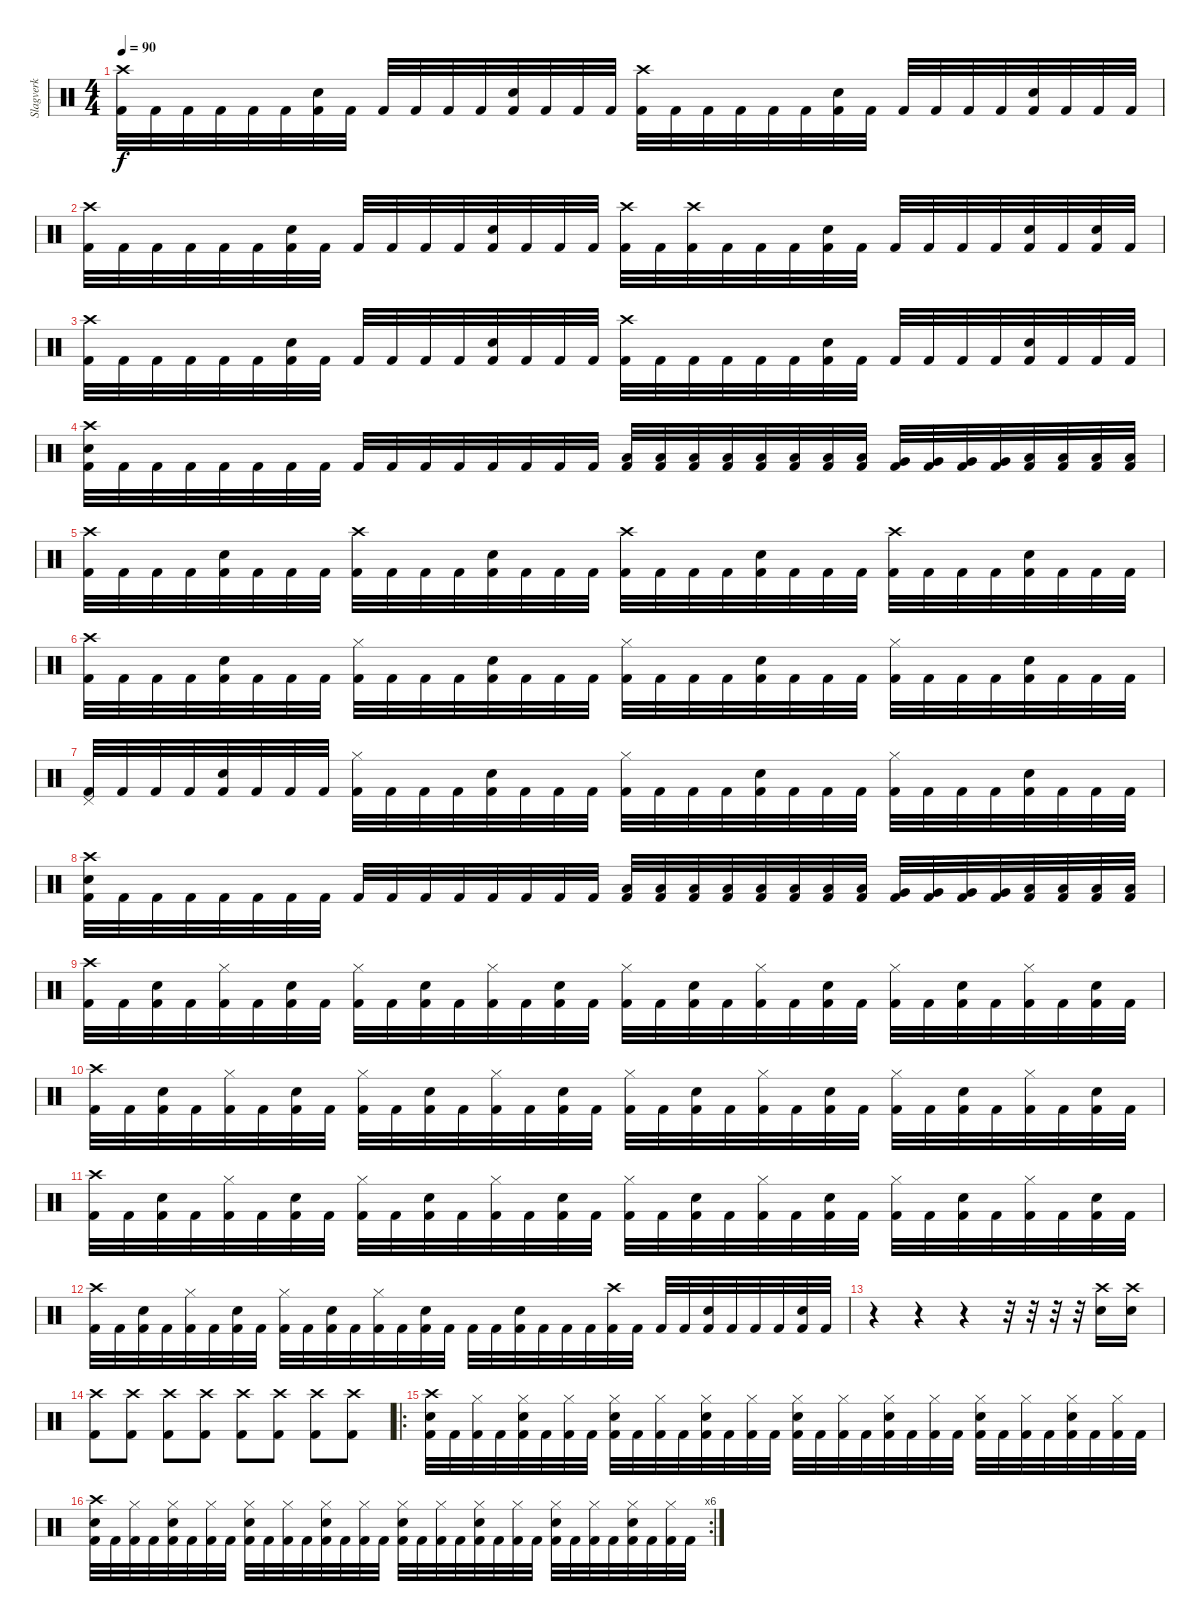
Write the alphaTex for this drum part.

\track ("Slagverk" "Slagverk") {instrument percussion}
\staff {score}
\articulation defaults
\ts (4 4)
\tempo 90
\clef neutral
\ks c
("Crash high (hit)" "Kick (hit) 2").32{dy f} "Kick (hit) 2".32 "Kick (hit) 2".32 "Kick (hit) 2".32 "Kick (hit) 2".32 "Kick (hit) 2".32 ("Snare (hit) 2" "Kick (hit) 2").32 "Kick (hit) 2".32 "Kick (hit) 2".32 "Kick (hit) 2".32 "Kick (hit) 2".32 "Kick (hit) 2".32 ("Snare (hit) 2" "Kick (hit) 2").32 "Kick (hit) 2".32 "Kick (hit) 2".32 "Kick (hit) 2".32 ("Crash high (hit)" "Kick (hit) 2").32 "Kick (hit) 2".32 "Kick (hit) 2".32 "Kick (hit) 2".32 "Kick (hit) 2".32 "Kick (hit) 2".32 ("Snare (hit) 2" "Kick (hit) 2").32 "Kick (hit) 2".32 "Kick (hit) 2".32 "Kick (hit) 2".32 "Kick (hit) 2".32 "Kick (hit) 2".32 ("Snare (hit) 2" "Kick (hit) 2").32 "Kick (hit) 2".32 "Kick (hit) 2".32 "Kick (hit) 2".32 |
("Crash high (hit)" "Kick (hit) 2").32 "Kick (hit) 2".32 "Kick (hit) 2".32 "Kick (hit) 2".32 "Kick (hit) 2".32 "Kick (hit) 2".32 ("Snare (hit) 2" "Kick (hit) 2").32 "Kick (hit) 2".32 "Kick (hit) 2".32 "Kick (hit) 2".32 "Kick (hit) 2".32 "Kick (hit) 2".32 ("Snare (hit) 2" "Kick (hit) 2").32 "Kick (hit) 2".32 "Kick (hit) 2".32 "Kick (hit) 2".32 ("Crash high (hit)" "Kick (hit) 2").32 "Kick (hit) 2".32 ("Crash high (hit)" "Kick (hit) 2").32 "Kick (hit) 2".32 "Kick (hit) 2".32 "Kick (hit) 2".32 ("Snare (hit) 2" "Kick (hit) 2").32 "Kick (hit) 2".32 "Kick (hit) 2".32 "Kick (hit) 2".32 "Kick (hit) 2".32 "Kick (hit) 2".32 ("Snare (hit) 2" "Kick (hit) 2").32 "Kick (hit) 2".32 ("Snare (hit) 2" "Kick (hit) 2").32 "Kick (hit) 2".32 |
("Crash high (hit)" "Kick (hit) 2").32 "Kick (hit) 2".32 "Kick (hit) 2".32 "Kick (hit) 2".32 "Kick (hit) 2".32 "Kick (hit) 2".32 ("Snare (hit) 2" "Kick (hit) 2").32 "Kick (hit) 2".32 "Kick (hit) 2".32 "Kick (hit) 2".32 "Kick (hit) 2".32 "Kick (hit) 2".32 ("Snare (hit) 2" "Kick (hit) 2").32 "Kick (hit) 2".32 "Kick (hit) 2".32 "Kick (hit) 2".32 ("Crash high (hit)" "Kick (hit) 2").32 "Kick (hit) 2".32 "Kick (hit) 2".32 "Kick (hit) 2".32 "Kick (hit) 2".32 "Kick (hit) 2".32 ("Snare (hit) 2" "Kick (hit) 2").32 "Kick (hit) 2".32 "Kick (hit) 2".32 "Kick (hit) 2".32 "Kick (hit) 2".32 "Kick (hit) 2".32 ("Snare (hit) 2" "Kick (hit) 2").32 "Kick (hit) 2".32 "Kick (hit) 2".32 "Kick (hit) 2".32 |
("Crash high (hit)" "Snare (hit) 2" "Kick (hit) 2").32 "Kick (hit) 2".32 "Kick (hit) 2".32 "Kick (hit) 2".32 "Kick (hit) 2".32 "Kick (hit) 2".32 "Kick (hit) 2".32 "Kick (hit) 2".32 "Kick (hit) 2".32 "Kick (hit) 2".32 "Kick (hit) 2".32 "Kick (hit) 2".32 "Kick (hit) 2".32 "Kick (hit) 2".32 "Kick (hit) 2".32 "Kick (hit) 2".32 ("Low Tom (hit)" "Kick (hit) 2").32 ("Low Tom (hit)" "Kick (hit) 2").32 ("Low Tom (hit)" "Kick (hit) 2").32 ("Low Tom (hit)" "Kick (hit) 2").32 ("Low Tom (hit)" "Kick (hit) 2").32 ("Low Tom (hit)" "Kick (hit) 2").32 ("Low Tom (hit)" "Kick (hit) 2").32 ("Low Tom (hit)" "Kick (hit) 2").32 ("Very Low Tom (hit)" "Kick (hit) 2").32 ("Very Low Tom (hit)" "Kick (hit) 2").32 ("Very Low Tom (hit)" "Kick (hit) 2").32 ("Very Low Tom (hit)" "Kick (hit) 2").32 ("Low Floor Tom (hit)" "Kick (hit) 2").32 ("Low Floor Tom (hit)" "Kick (hit) 2").32 ("Low Floor Tom (hit)" "Kick (hit) 2").32 ("Low Floor Tom (hit)" "Kick (hit) 2").32 |
("Crash high (hit)" "Kick (hit) 2").32 "Kick (hit) 2".32 "Kick (hit) 2".32 "Kick (hit) 2".32 ("Snare (hit) 2" "Kick (hit) 2").32 "Kick (hit) 2".32 "Kick (hit) 2".32 "Kick (hit) 2".32 ("Crash high (hit)" "Kick (hit) 2").32 "Kick (hit) 2".32 "Kick (hit) 2".32 "Kick (hit) 2".32 ("Snare (hit) 2" "Kick (hit) 2").32 "Kick (hit) 2".32 "Kick (hit) 2".32 "Kick (hit) 2".32 ("Crash high (hit)" "Kick (hit) 2").32 "Kick (hit) 2".32 "Kick (hit) 2".32 "Kick (hit) 2".32 ("Snare (hit) 2" "Kick (hit) 2").32 "Kick (hit) 2".32 "Kick (hit) 2".32 "Kick (hit) 2".32 ("Crash high (hit)" "Kick (hit) 2").32 "Kick (hit) 2".32 "Kick (hit) 2".32 "Kick (hit) 2".32 ("Snare (hit) 2" "Kick (hit) 2").32 "Kick (hit) 2".32 "Kick (hit) 2".32 "Kick (hit) 2".32 |
("Crash high (hit)" "Kick (hit) 2").32 "Kick (hit) 2".32 "Kick (hit) 2".32 "Kick (hit) 2".32 ("Snare (hit) 2" "Kick (hit) 2").32 "Kick (hit) 2".32 "Kick (hit) 2".32 "Kick (hit) 2".32 ("Hi-Hat (closed)" "Kick (hit) 2").32 "Kick (hit) 2".32 "Kick (hit) 2".32 "Kick (hit) 2".32 ("Snare (hit) 2" "Kick (hit) 2").32 "Kick (hit) 2".32 "Kick (hit) 2".32 "Kick (hit) 2".32 ("Hi-Hat (closed)" "Kick (hit) 2").32 "Kick (hit) 2".32 "Kick (hit) 2".32 "Kick (hit) 2".32 ("Snare (hit) 2" "Kick (hit) 2").32 "Kick (hit) 2".32 "Kick (hit) 2".32 "Kick (hit) 2".32 ("Hi-Hat (closed)" "Kick (hit) 2").32 "Kick (hit) 2".32 "Kick (hit) 2".32 "Kick (hit) 2".32 ("Snare (hit) 2" "Kick (hit) 2").32 "Kick (hit) 2".32 "Kick (hit) 2".32 "Kick (hit) 2".32 |
("Pedal Hi-Hat (hit)" "Kick (hit) 2").32 "Kick (hit) 2".32 "Kick (hit) 2".32 "Kick (hit) 2".32 ("Snare (hit) 2" "Kick (hit) 2").32 "Kick (hit) 2".32 "Kick (hit) 2".32 "Kick (hit) 2".32 ("Hi-Hat (closed)" "Kick (hit) 2").32 "Kick (hit) 2".32 "Kick (hit) 2".32 "Kick (hit) 2".32 ("Snare (hit) 2" "Kick (hit) 2").32 "Kick (hit) 2".32 "Kick (hit) 2".32 "Kick (hit) 2".32 ("Hi-Hat (closed)" "Kick (hit) 2").32 "Kick (hit) 2".32 "Kick (hit) 2".32 "Kick (hit) 2".32 ("Snare (hit) 2" "Kick (hit) 2").32 "Kick (hit) 2".32 "Kick (hit) 2".32 "Kick (hit) 2".32 ("Hi-Hat (closed)" "Kick (hit) 2").32 "Kick (hit) 2".32 "Kick (hit) 2".32 "Kick (hit) 2".32 ("Snare (hit) 2" "Kick (hit) 2").32 "Kick (hit) 2".32 "Kick (hit) 2".32 "Kick (hit) 2".32 |
("Crash high (hit)" "Snare (hit) 2" "Kick (hit) 2").32 "Kick (hit) 2".32 "Kick (hit) 2".32 "Kick (hit) 2".32 "Kick (hit) 2".32 "Kick (hit) 2".32 "Kick (hit) 2".32 "Kick (hit) 2".32 "Kick (hit) 2".32 "Kick (hit) 2".32 "Kick (hit) 2".32 "Kick (hit) 2".32 "Kick (hit) 2".32 "Kick (hit) 2".32 "Kick (hit) 2".32 "Kick (hit) 2".32 ("Low Tom (hit)" "Kick (hit) 2").32 ("Low Tom (hit)" "Kick (hit) 2").32 ("Low Tom (hit)" "Kick (hit) 2").32 ("Low Tom (hit)" "Kick (hit) 2").32 ("Low Tom (hit)" "Kick (hit) 2").32 ("Low Tom (hit)" "Kick (hit) 2").32 ("Low Tom (hit)" "Kick (hit) 2").32 ("Low Tom (hit)" "Kick (hit) 2").32 ("Very Low Tom (hit)" "Kick (hit) 2").32 ("Very Low Tom (hit)" "Kick (hit) 2").32 ("Very Low Tom (hit)" "Kick (hit) 2").32 ("Very Low Tom (hit)" "Kick (hit) 2").32 ("Low Floor Tom (hit)" "Kick (hit) 2").32 ("Low Floor Tom (hit)" "Kick (hit) 2").32 ("Low Floor Tom (hit)" "Kick (hit) 2").32 ("Low Floor Tom (hit)" "Kick (hit) 2").32 |
("Crash high (hit)" "Kick (hit) 2").32 "Kick (hit) 2".32 ("Snare (hit) 2" "Kick (hit) 2").32 "Kick (hit) 2".32 ("Hi-Hat (closed)" "Kick (hit) 2").32 "Kick (hit) 2".32 ("Snare (hit) 2" "Kick (hit) 2").32 "Kick (hit) 2".32 ("Hi-Hat (closed)" "Kick (hit) 2").32 "Kick (hit) 2".32 ("Snare (hit) 2" "Kick (hit) 2").32 "Kick (hit) 2".32 ("Hi-Hat (closed)" "Kick (hit) 2").32 "Kick (hit) 2".32 ("Snare (hit) 2" "Kick (hit) 2").32 "Kick (hit) 2".32 ("Hi-Hat (closed)" "Kick (hit) 2").32 "Kick (hit) 2".32 ("Snare (hit) 2" "Kick (hit) 2").32 "Kick (hit) 2".32 ("Hi-Hat (closed)" "Kick (hit) 2").32 "Kick (hit) 2".32 ("Snare (hit) 2" "Kick (hit) 2").32 "Kick (hit) 2".32 ("Hi-Hat (closed)" "Kick (hit) 2").32 "Kick (hit) 2".32 ("Snare (hit) 2" "Kick (hit) 2").32 "Kick (hit) 2".32 ("Hi-Hat (closed)" "Kick (hit) 2").32 "Kick (hit) 2".32 ("Snare (hit) 2" "Kick (hit) 2").32 "Kick (hit) 2".32 |
("Crash high (hit)" "Kick (hit) 2").32 "Kick (hit) 2".32 ("Snare (hit) 2" "Kick (hit) 2").32 "Kick (hit) 2".32 ("Hi-Hat (closed)" "Kick (hit) 2").32 "Kick (hit) 2".32 ("Snare (hit) 2" "Kick (hit) 2").32 "Kick (hit) 2".32 ("Hi-Hat (closed)" "Kick (hit) 2").32 "Kick (hit) 2".32 ("Snare (hit) 2" "Kick (hit) 2").32 "Kick (hit) 2".32 ("Hi-Hat (closed)" "Kick (hit) 2").32 "Kick (hit) 2".32 ("Snare (hit) 2" "Kick (hit) 2").32 "Kick (hit) 2".32 ("Hi-Hat (closed)" "Kick (hit) 2").32 "Kick (hit) 2".32 ("Snare (hit) 2" "Kick (hit) 2").32 "Kick (hit) 2".32 ("Hi-Hat (closed)" "Kick (hit) 2").32 "Kick (hit) 2".32 ("Snare (hit) 2" "Kick (hit) 2").32 "Kick (hit) 2".32 ("Hi-Hat (closed)" "Kick (hit) 2").32 "Kick (hit) 2".32 ("Snare (hit) 2" "Kick (hit) 2").32 "Kick (hit) 2".32 ("Hi-Hat (closed)" "Kick (hit) 2").32 "Kick (hit) 2".32 ("Snare (hit) 2" "Kick (hit) 2").32 "Kick (hit) 2".32 |
("Crash high (hit)" "Kick (hit) 2").32 "Kick (hit) 2".32 ("Snare (hit) 2" "Kick (hit) 2").32 "Kick (hit) 2".32 ("Hi-Hat (closed)" "Kick (hit) 2").32 "Kick (hit) 2".32 ("Snare (hit) 2" "Kick (hit) 2").32 "Kick (hit) 2".32 ("Hi-Hat (closed)" "Kick (hit) 2").32 "Kick (hit) 2".32 ("Snare (hit) 2" "Kick (hit) 2").32 "Kick (hit) 2".32 ("Hi-Hat (closed)" "Kick (hit) 2").32 "Kick (hit) 2".32 ("Snare (hit) 2" "Kick (hit) 2").32 "Kick (hit) 2".32 ("Hi-Hat (closed)" "Kick (hit) 2").32 "Kick (hit) 2".32 ("Snare (hit) 2" "Kick (hit) 2").32 "Kick (hit) 2".32 ("Hi-Hat (closed)" "Kick (hit) 2").32 "Kick (hit) 2".32 ("Snare (hit) 2" "Kick (hit) 2").32 "Kick (hit) 2".32 ("Hi-Hat (closed)" "Kick (hit) 2").32 "Kick (hit) 2".32 ("Snare (hit) 2" "Kick (hit) 2").32 "Kick (hit) 2".32 ("Hi-Hat (closed)" "Kick (hit) 2").32 "Kick (hit) 2".32 ("Snare (hit) 2" "Kick (hit) 2").32 "Kick (hit) 2".32 |
("Crash high (hit)" "Kick (hit) 2").32 "Kick (hit) 2".32 ("Snare (hit) 2" "Kick (hit) 2").32 "Kick (hit) 2".32 ("Hi-Hat (closed)" "Kick (hit) 2").32 "Kick (hit) 2".32 ("Snare (hit) 2" "Kick (hit) 2").32 "Kick (hit) 2".32 ("Hi-Hat (closed)" "Kick (hit) 2").32 "Kick (hit) 2".32 ("Snare (hit) 2" "Kick (hit) 2").32 "Kick (hit) 2".32 ("Hi-Hat (closed)" "Kick (hit) 2").32 "Kick (hit) 2".32 ("Snare (hit) 2" "Kick (hit) 2").32 "Kick (hit) 2".32 "Kick (hit) 2".32 "Kick (hit) 2".32 ("Snare (hit) 2" "Kick (hit) 2").32 "Kick (hit) 2".32 "Kick (hit) 2".32 "Kick (hit) 2".32 ("Crash high (hit)" "Kick (hit) 2").32 "Kick (hit) 2".32 "Kick (hit) 2".32 "Kick (hit) 2".32 ("Snare (hit) 2" "Kick (hit) 2").32 "Kick (hit) 2".32 "Kick (hit) 2".32 "Kick (hit) 2".32 ("Snare (hit) 2" "Kick (hit) 2").32 "Kick (hit) 2".32 |
r.4 r.4 r.4 r.32 r.32 r.32 r.32 ("Crash high (hit)" "Snare (hit) 2").16 ("Crash high (hit)" "Snare (hit) 2").16 |
("Crash high (hit)" "Kick (hit) 2").8 ("Crash high (hit)" "Kick (hit) 2").8 ("Crash high (hit)" "Kick (hit) 2").8 ("Crash high (hit)" "Kick (hit) 2").8 ("Crash high (hit)" "Kick (hit) 2").8 ("Crash high (hit)" "Kick (hit) 2").8 ("Crash high (hit)" "Kick (hit) 2").8 ("Crash high (hit)" "Kick (hit) 2").8 |
\ro
("Crash high (hit)" "Snare (hit) 2" "Kick (hit) 2").32 "Kick (hit) 2".32 ("Hi-Hat (closed)" "Kick (hit) 2").32 "Kick (hit) 2".32 ("Hi-Hat (closed)" "Snare (hit) 2" "Kick (hit) 2").32 "Kick (hit) 2".32 ("Hi-Hat (closed)" "Kick (hit) 2").32 "Kick (hit) 2".32 ("Hi-Hat (closed)" "Snare (hit) 2" "Kick (hit) 2").32 "Kick (hit) 2".32 ("Hi-Hat (closed)" "Kick (hit) 2").32 "Kick (hit) 2".32 ("Hi-Hat (closed)" "Snare (hit) 2" "Kick (hit) 2").32 "Kick (hit) 2".32 ("Hi-Hat (closed)" "Kick (hit) 2").32 "Kick (hit) 2".32 ("Hi-Hat (closed)" "Snare (hit) 2" "Kick (hit) 2").32 "Kick (hit) 2".32 ("Hi-Hat (closed)" "Kick (hit) 2").32 "Kick (hit) 2".32 ("Hi-Hat (closed)" "Snare (hit) 2" "Kick (hit) 2").32 "Kick (hit) 2".32 ("Hi-Hat (closed)" "Kick (hit) 2").32 "Kick (hit) 2".32 ("Hi-Hat (closed)" "Snare (hit) 2" "Kick (hit) 2").32 "Kick (hit) 2".32 ("Hi-Hat (closed)" "Kick (hit) 2").32 "Kick (hit) 2".32 ("Hi-Hat (closed)" "Snare (hit) 2" "Kick (hit) 2").32 "Kick (hit) 2".32 ("Hi-Hat (closed)" "Kick (hit) 2").32 "Kick (hit) 2".32 |
\rc 6
("Crash high (hit)" "Snare (hit) 2" "Kick (hit) 2").32 "Kick (hit) 2".32 ("Hi-Hat (closed)" "Kick (hit) 2").32 "Kick (hit) 2".32 ("Hi-Hat (closed)" "Snare (hit) 2" "Kick (hit) 2").32 "Kick (hit) 2".32 ("Hi-Hat (closed)" "Kick (hit) 2").32 "Kick (hit) 2".32 ("Hi-Hat (closed)" "Snare (hit) 2" "Kick (hit) 2").32 "Kick (hit) 2".32 ("Hi-Hat (closed)" "Kick (hit) 2").32 "Kick (hit) 2".32 ("Hi-Hat (closed)" "Snare (hit) 2" "Kick (hit) 2").32 "Kick (hit) 2".32 ("Hi-Hat (closed)" "Kick (hit) 2").32 "Kick (hit) 2".32 ("Hi-Hat (closed)" "Snare (hit) 2" "Kick (hit) 2").32 "Kick (hit) 2".32 ("Hi-Hat (closed)" "Kick (hit) 2").32 "Kick (hit) 2".32 ("Hi-Hat (closed)" "Snare (hit) 2" "Kick (hit) 2").32 "Kick (hit) 2".32 ("Hi-Hat (closed)" "Kick (hit) 2").32 "Kick (hit) 2".32 ("Hi-Hat (closed)" "Snare (hit) 2" "Kick (hit) 2").32 "Kick (hit) 2".32 ("Hi-Hat (closed)" "Kick (hit) 2").32 "Kick (hit) 2".32 ("Hi-Hat (closed)" "Snare (hit) 2" "Kick (hit) 2").32 "Kick (hit) 2".32 ("Hi-Hat (closed)" "Kick (hit) 2").32 "Kick (hit) 2".32
